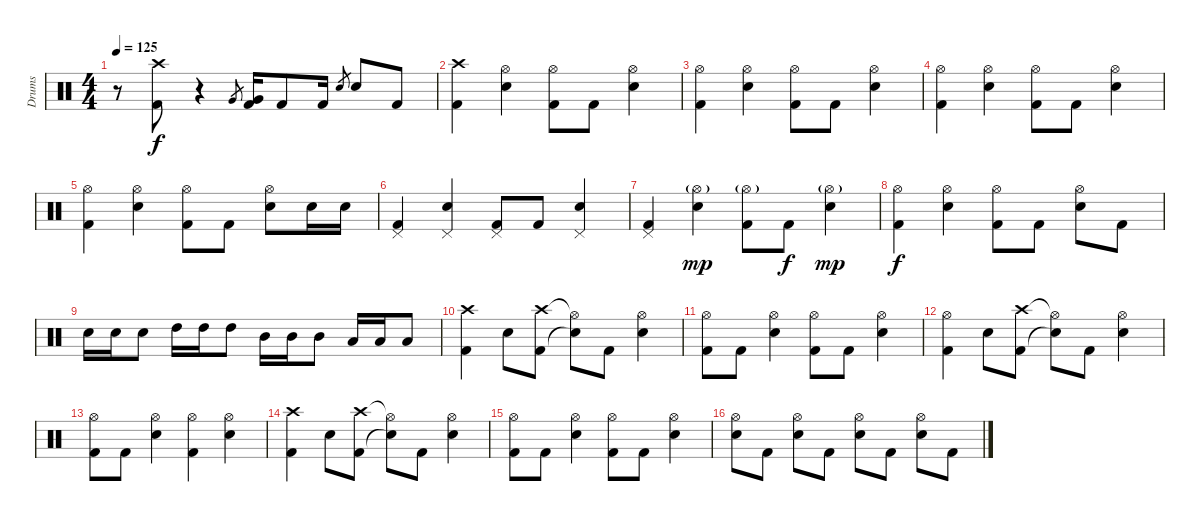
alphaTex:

\track ("Drums" "Drums") {instrument percussion}
\staff {score}
\articulation defaults
\ts (4 4)
\tempo 125
\clef neutral
\ks c
r.8{dy f} ("Crash high (hit)" "Kick (hit) 2").8 r.4 "Very Low Tom (hit)".8{gr} ("Very Low Tom (hit)" "Kick (hit) 2").16 "Kick (hit) 2".8 "Kick (hit) 2".16 "Electric Snare (hit)".8{gr} "Electric Snare (hit)".8 "Kick (hit) 2".8 |
("Crash high (hit)" "Kick (hit) 2").4 ("Hi-Hat (open)" "Electric Snare (hit)").4 ("Hi-Hat (open)" "Kick (hit) 2").8 "Kick (hit) 2".8 ("Hi-Hat (open)" "Electric Snare (hit)").4 |
("Hi-Hat (open)" "Kick (hit) 2").4 ("Hi-Hat (open)" "Electric Snare (hit)").4 ("Hi-Hat (open)" "Kick (hit) 2").8 "Kick (hit) 2".8 ("Hi-Hat (open)" "Electric Snare (hit)").4 |
("Hi-Hat (open)" "Kick (hit) 2").4 ("Hi-Hat (open)" "Electric Snare (hit)").4 ("Hi-Hat (open)" "Kick (hit) 2").8 "Kick (hit) 2".8 ("Hi-Hat (open)" "Electric Snare (hit)").4 |
("Hi-Hat (open)" "Kick (hit) 2").4 ("Hi-Hat (open)" "Electric Snare (hit)").4 ("Hi-Hat (open)" "Kick (hit) 2").8 "Kick (hit) 2".8 ("Hi-Hat (open)" "Electric Snare (hit)").8 "Electric Snare (hit)".16 "Electric Snare (hit)".16 |
("Pedal Hi-Hat (hit)" "Kick (hit) 2").4 ("Pedal Hi-Hat (hit)" "Electric Snare (hit)").4 ("Pedal Hi-Hat (hit)" "Kick (hit) 2").8 "Kick (hit) 2".8 ("Pedal Hi-Hat (hit)" "Electric Snare (hit)").4 |
("Pedal Hi-Hat (hit)" "Kick (hit) 2").4 ("Hi-Hat (open)"{g} "Electric Snare (hit)").4{dy mp} ("Hi-Hat (open)"{g} "Kick (hit) 2").8 "Kick (hit) 2".8{dy f} ("Hi-Hat (open)"{g} "Electric Snare (hit)").4{dy mp} |
("Hi-Hat (open)" "Kick (hit) 2").4{dy f} ("Hi-Hat (open)" "Electric Snare (hit)").4 ("Hi-Hat (open)" "Kick (hit) 2").8 "Kick (hit) 2".8 ("Hi-Hat (open)" "Electric Snare (hit)").8 "Kick (hit) 2".8 |
"Electric Snare (hit)".16 "Electric Snare (hit)".16 "Electric Snare (hit)".8 "High Tom (hit)".16 "High Tom (hit)".16 "High Tom (hit)".8 "Mid Tom (hit)".16 "Mid Tom (hit)".16 "Mid Tom (hit)".8 "Low Tom (hit)".16 "Low Tom (hit)".16 "Low Tom (hit)".8 |
("Crash high (hit)" "Kick (hit) 2").4 "Electric Snare (hit)".8 ("Crash high (hit)" "Kick (hit) 2").8 ("Hi-Hat (open)"{t} "Snare (hit)"{t}).8 "Kick (hit) 2".8 ("Hi-Hat (open)" "Electric Snare (hit)").4 |
("Hi-Hat (open)" "Kick (hit) 2").8 "Kick (hit) 2".8 ("Hi-Hat (open)" "Electric Snare (hit)").4 ("Hi-Hat (open)" "Kick (hit) 2").8 "Kick (hit) 2".8 ("Hi-Hat (open)" "Electric Snare (hit)").4 |
("Hi-Hat (open)" "Kick (hit) 2").4 "Electric Snare (hit)".8 ("Crash high (hit)" "Kick (hit) 2").8 ("Hi-Hat (open)"{t} "Snare (hit)"{t}).8 "Kick (hit) 2".8 ("Hi-Hat (open)" "Electric Snare (hit)").4 |
("Hi-Hat (open)" "Kick (hit) 2").8 "Kick (hit) 2".8 ("Hi-Hat (open)" "Electric Snare (hit)").4 ("Hi-Hat (open)" "Kick (hit) 2").4 ("Hi-Hat (open)" "Electric Snare (hit)").4 |
("Crash high (hit)" "Kick (hit) 2").4 "Electric Snare (hit)".8 ("Crash high (hit)" "Kick (hit) 2").8 ("Hi-Hat (open)"{t} "Snare (hit)"{t}).8 "Kick (hit) 2".8 ("Hi-Hat (open)" "Electric Snare (hit)").4 |
("Hi-Hat (open)" "Kick (hit) 2").8 "Kick (hit) 2".8 ("Hi-Hat (open)" "Electric Snare (hit)").4 ("Hi-Hat (open)" "Kick (hit) 2").8 "Kick (hit) 2".8 ("Hi-Hat (open)" "Electric Snare (hit)").4 |
("Hi-Hat (open)" "Electric Snare (hit)").8 "Kick (hit) 2".8 ("Hi-Hat (open)" "Electric Snare (hit)").8 "Kick (hit) 2".8 ("Hi-Hat (open)" "Electric Snare (hit)").8 "Kick (hit) 2".8 ("Hi-Hat (open)" "Electric Snare (hit)").8 "Kick (hit) 2".8
